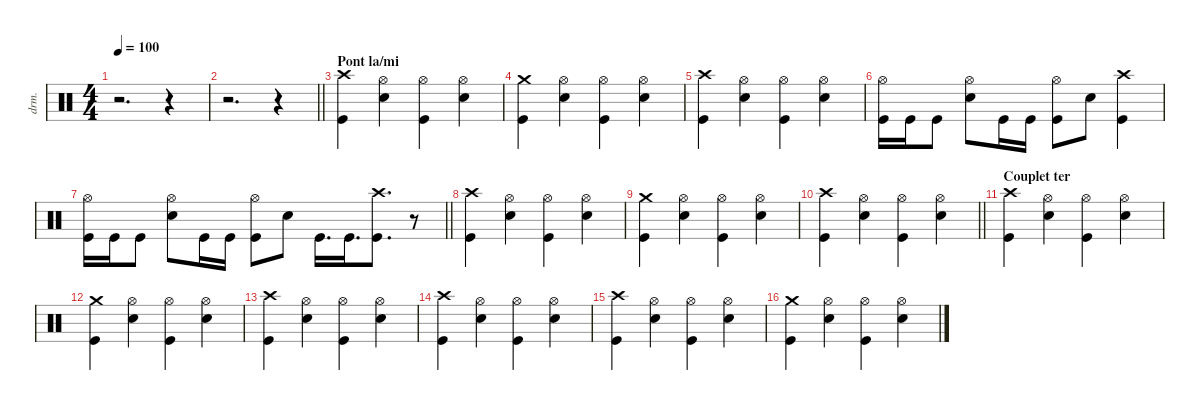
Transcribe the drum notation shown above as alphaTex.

\defaultSystemsLayout 4
\hideDynamics
\bracketExtendMode nobrackets
\otherSystemsTrackNameOrientation horizontal
\track ("Drumkit" "drm.") {instrument percussion}
\staff {score}
\articulation defaults
\ts (4 4)
\tempo 100
\clef neutral
\ks c
r.2{d dy f} r.4 |
\barLineRight lightlight
r.2{d} r.4 |
\section ("" "Pont la/mi")
("Crash high (hit)" "Kick (hit)").4{dy ff} ("Hi-Hat (open)" "Snare (hit) 2").4{dy f} ("Hi-Hat (open)" "Kick (hit)").4 ("Hi-Hat (open)" "Snare (hit) 2").4 |
("Crash medium (hit)" "Kick (hit)").4 ("Hi-Hat (open)" "Snare (hit) 2").4 ("Hi-Hat (open)" "Kick (hit)").4 ("Hi-Hat (open)" "Snare (hit) 2").4 |
("Crash high (hit)" "Kick (hit)").4 ("Hi-Hat (open)" "Snare (hit) 2").4 ("Hi-Hat (open)" "Kick (hit)").4 ("Hi-Hat (open)" "Snare (hit) 2").4 |
("Hi-Hat (open)" "Kick (hit)").16 "Kick (hit)".16 "Kick (hit)".8 ("Hi-Hat (open)" "Snare (hit) 2").8 "Kick (hit)".16 "Kick (hit)".16 ("Hi-Hat (open)" "Kick (hit)").8 "Snare (hit) 2".8 ("Crash high (hit)" "Kick (hit)").4 |
\barLineRight lightlight
("Hi-Hat (open)" "Kick (hit)").16 "Kick (hit)".16 "Kick (hit)".8 ("Hi-Hat (open)" "Snare (hit) 2").8 "Kick (hit)".16 "Kick (hit)".16 ("Hi-Hat (open)" "Kick (hit)").8 "Snare (hit) 2".8 "Kick (hit)".16{d} "Kick (hit)".16{d} ("Crash high (hit)" "Kick (hit)").8{d} r.8 |
("Crash high (hit)" "Kick (hit)").4 ("Hi-Hat (open)" "Snare (hit) 2").4 ("Hi-Hat (open)" "Kick (hit)").4 ("Hi-Hat (open)" "Snare (hit) 2").4 |
("Crash medium (hit)" "Kick (hit)").4 ("Hi-Hat (open)" "Snare (hit) 2").4 ("Hi-Hat (open)" "Kick (hit)").4 ("Hi-Hat (open)" "Snare (hit) 2").4 |
\barLineRight lightlight
("Crash high (hit)" "Kick (hit)").4 ("Hi-Hat (open)" "Snare (hit) 2").4 ("Hi-Hat (open)" "Kick (hit)").4 ("Hi-Hat (open)" "Snare (hit) 2").4 |
\section ("" "Couplet ter")
("Crash high (hit)" "Kick (hit)").4 ("Hi-Hat (open)" "Snare (hit) 2").4 ("Hi-Hat (open)" "Kick (hit)").4 ("Hi-Hat (open)" "Snare (hit) 2").4 |
("Crash medium (hit)" "Kick (hit)").4 ("Hi-Hat (open)" "Snare (hit) 2").4 ("Hi-Hat (open)" "Kick (hit)").4 ("Hi-Hat (open)" "Snare (hit) 2").4 |
("Crash high (hit)" "Kick (hit)").4 ("Hi-Hat (open)" "Snare (hit) 2").4 ("Hi-Hat (open)" "Kick (hit)").4 ("Hi-Hat (open)" "Snare (hit) 2").4 |
("Crash high (hit)" "Kick (hit)").4 ("Hi-Hat (open)" "Snare (hit) 2").4 ("Hi-Hat (open)" "Kick (hit)").4 ("Hi-Hat (open)" "Snare (hit) 2").4 |
("Crash high (hit)" "Kick (hit)").4 ("Hi-Hat (open)" "Snare (hit) 2").4 ("Hi-Hat (open)" "Kick (hit)").4 ("Hi-Hat (open)" "Snare (hit) 2").4 |
("Crash medium (hit)" "Kick (hit)").4 ("Hi-Hat (open)" "Snare (hit) 2").4 ("Hi-Hat (open)" "Kick (hit)").4 ("Hi-Hat (open)" "Snare (hit) 2").4
